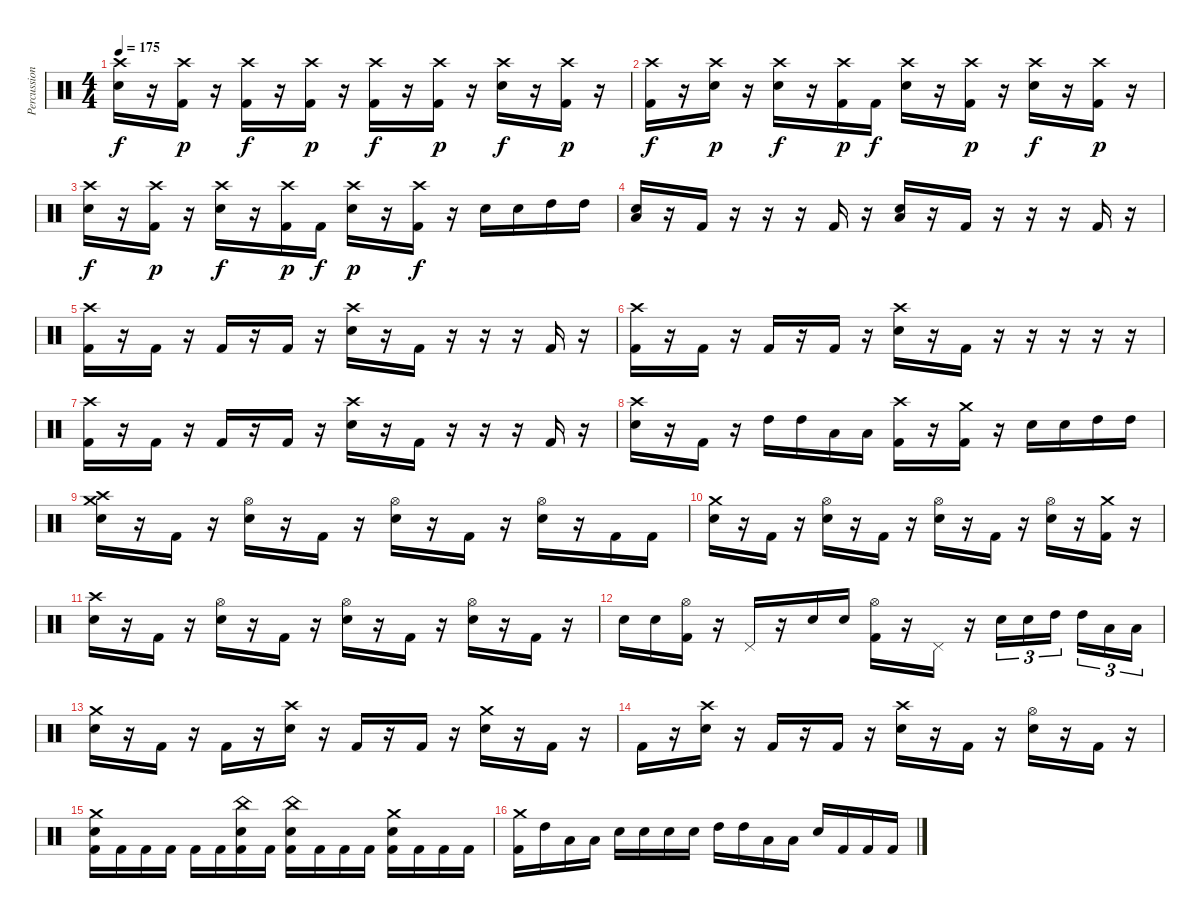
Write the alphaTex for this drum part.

\track ("Percussion" "Percussion") {instrument percussion}
\staff {score}
\articulation defaults
\ts (4 4)
\tempo 175
\clef neutral
\ks c
("Crash high (hit)" "Electric Snare (hit)").16{dy f} r.16 ("Crash high (hit)" "Kick (hit) 2").16{dy p} r.16 ("Crash high (hit)" "Kick (hit) 2").16{dy f} r.16 ("Crash high (hit)" "Kick (hit) 2").16{dy p} r.16 ("Crash high (hit)" "Kick (hit) 2").16{dy f} r.16 ("Crash high (hit)" "Kick (hit) 2").16{dy p} r.16 ("Crash high (hit)" "Electric Snare (hit)").16{dy f} r.16 ("Crash high (hit)" "Kick (hit) 2").16{dy p} r.16 |
("Crash high (hit)" "Kick (hit) 2").16{dy f} r.16 ("Crash high (hit)" "Electric Snare (hit)").16{dy p} r.16 ("Crash high (hit)" "Electric Snare (hit)").16{dy f} r.16 ("Crash high (hit)" "Kick (hit) 2").16{dy p} "Kick (hit) 2".16{dy f} ("Crash high (hit)" "Electric Snare (hit)").16 r.16 ("Crash high (hit)" "Kick (hit) 2").16{dy p} r.16 ("Crash high (hit)" "Electric Snare (hit)").16{dy f} r.16 ("Crash high (hit)" "Kick (hit) 2").16{dy p} r.16 |
("Crash high (hit)" "Electric Snare (hit)").16{dy f} r.16 ("Crash high (hit)" "Kick (hit) 2").16{dy p} r.16 ("Crash high (hit)" "Electric Snare (hit)").16{dy f} r.16 ("Crash high (hit)" "Kick (hit) 2").16{dy p} "Kick (hit) 2".16{dy f} ("Crash high (hit)" "Electric Snare (hit)").16{dy p} r.16 ("Crash high (hit)" "Kick (hit) 2").16{dy f} r.16 "Electric Snare (hit)".16 "Electric Snare (hit)".16 "High Tom (hit)".16 "High Tom (hit)".16 |
("Electric Snare (hit)" "Low Floor Tom (hit)").16 r.16 "Kick (hit) 2".16 r.16 r.16 r.16 "Kick (hit) 2".16 r.16 ("Low Floor Tom (hit)" "Electric Snare (hit)").16 r.16 "Kick (hit) 2".16 r.16 r.16 r.16 "Kick (hit) 2".16 r.16 |
("Crash high (hit)" "Kick (hit) 2").16 r.16 "Kick (hit) 2".16 r.16 "Kick (hit) 2".16 r.16 "Kick (hit) 2".16 r.16 ("Crash high (hit)" "Electric Snare (hit)").16 r.16 "Kick (hit) 2".16 r.16 r.16 r.16 "Kick (hit) 2".16 r.16 |
("Crash high (hit)" "Kick (hit) 2").16 r.16 "Kick (hit) 2".16 r.16 "Kick (hit) 2".16 r.16 "Kick (hit) 2".16 r.16 ("Crash high (hit)" "Electric Snare (hit)").16 r.16 "Kick (hit) 2".16 r.16 r.16 r.16 r.16 r.16 |
("Crash high (hit)" "Kick (hit) 2").16 r.16 "Kick (hit) 2".16 r.16 "Kick (hit) 2".16 r.16 "Kick (hit) 2".16 r.16 ("Crash high (hit)" "Electric Snare (hit)").16 r.16 "Kick (hit) 2".16 r.16 r.16 r.16 "Kick (hit) 2".16 r.16 |
("Crash high (hit)" "Electric Snare (hit)").16 r.16 "Kick (hit) 2".16 r.16 "High Tom (hit)".16 "High Tom (hit)".16 "Low Floor Tom (hit)".16 "Low Floor Tom (hit)".16 ("Crash high (hit)" "Kick (hit) 2").16 r.16 ("Crash medium (hit)" "Kick (hit) 2").16 r.16 "Electric Snare (hit)".16 "Electric Snare (hit)".16 "High Tom (hit)".16 "High Tom (hit)".16 |
("Crash medium (hit)" "Crash high (hit)" "Electric Snare (hit)").16 r.16 "Kick (hit) 2".16 r.16 ("Hi-Hat (open)" "Electric Snare (hit)").16 r.16 "Kick (hit) 2".16 r.16 ("Hi-Hat (open)" "Electric Snare (hit)").16 r.16 "Kick (hit) 2".16 r.16 ("Hi-Hat (open)" "Electric Snare (hit)").16 r.16 "Kick (hit) 2".16 "Kick (hit) 2".16 |
("Crash medium (hit)" "Electric Snare (hit)").16 r.16 "Kick (hit) 2".16 r.16 ("Hi-Hat (open)" "Electric Snare (hit)").16 r.16 "Kick (hit) 2".16 r.16 ("Hi-Hat (open)" "Electric Snare (hit)").16 r.16 "Kick (hit) 2".16 r.16 ("Hi-Hat (open)" "Electric Snare (hit)").16 r.16 ("Crash medium (hit)" "Kick (hit) 2").16 r.16 |
("Crash high (hit)" "Electric Snare (hit)").16 r.16 "Kick (hit) 2".16 r.16 ("Hi-Hat (open)" "Electric Snare (hit)").16 r.16 "Kick (hit) 2".16 r.16 ("Hi-Hat (open)" "Electric Snare (hit)").16 r.16 "Kick (hit) 2".16 r.16 ("Hi-Hat (open)" "Electric Snare (hit)").16 r.16 "Kick (hit) 2".16 r.16 |
"Electric Snare (hit)".16 "Electric Snare (hit)".16 ("Hi-Hat (open)" "Kick (hit) 2").16 r.16 "Pedal Hi-Hat (hit)".16 r.16 "Electric Snare (hit)".16 "Electric Snare (hit)".16 ("Hi-Hat (open)" "Kick (hit) 2").16 r.16 "Pedal Hi-Hat (hit)".16 r.16 "Electric Snare (hit)".16{tu (3 2)} "Electric Snare (hit)".16{tu (3 2)} "High Tom (hit)".16{tu (3 2) beam splitsecondary} "High Tom (hit)".16{tu (3 2)} "Low Floor Tom (hit)".16{tu (3 2)} "Low Floor Tom (hit)".16{tu (3 2)} |
("Crash medium (hit)" "Electric Snare (hit)").16 r.16 "Kick (hit) 2".16 r.16 "Kick (hit) 2".16 r.16 ("Crash high (hit)" "Electric Snare (hit)").16 r.16 "Kick (hit) 2".16 r.16 "Kick (hit) 2".16 r.16 ("Crash medium (hit)" "Electric Snare (hit)").16 r.16 "Kick (hit) 2".16 r.16 |
"Kick (hit) 2".16 r.16 ("Crash high (hit)" "Electric Snare (hit)").16 r.16 "Kick (hit) 2".16 r.16 "Kick (hit) 2".16 r.16 ("Crash high (hit)" "Electric Snare (hit)").16 r.16 "Kick (hit) 2".16 r.16 ("Hi-Hat (open)" "Electric Snare (hit)").16 r.16 "Kick (hit) 2".16 r.16 |
("Crash medium (hit)" "Electric Snare (hit)" "Kick (hit) 2").16 "Kick (hit) 2".16 "Kick (hit) 2".16 "Kick (hit) 2".16 "Kick (hit) 2".16 "Kick (hit) 2".16 ("China (hit)" "Electric Snare (hit)" "Kick (hit) 2").16 "Kick (hit) 2".16 ("China (hit)" "Electric Snare (hit)" "Kick (hit) 2").16 "Kick (hit) 2".16 "Kick (hit) 2".16 "Kick (hit) 2".16 ("Crash medium (hit)" "Electric Snare (hit)" "Kick (hit) 2").16 "Kick (hit) 2".16 "Kick (hit) 2".16 "Kick (hit) 2".16 |
("Crash medium (hit)" "Kick (hit) 2").16 "High Tom (hit)".16 "Low Floor Tom (hit)".16 "Low Floor Tom (hit)".16 "Electric Snare (hit)".16 "Electric Snare (hit)".16 "Electric Snare (hit)".16 "Electric Snare (hit)".16 "High Tom (hit)".16 "High Tom (hit)".16 "Low Floor Tom (hit)".16 "Low Floor Tom (hit)".16 "Electric Snare (hit)".16 "Kick (hit) 2".16 "Kick (hit) 2".16 "Kick (hit) 2".16
